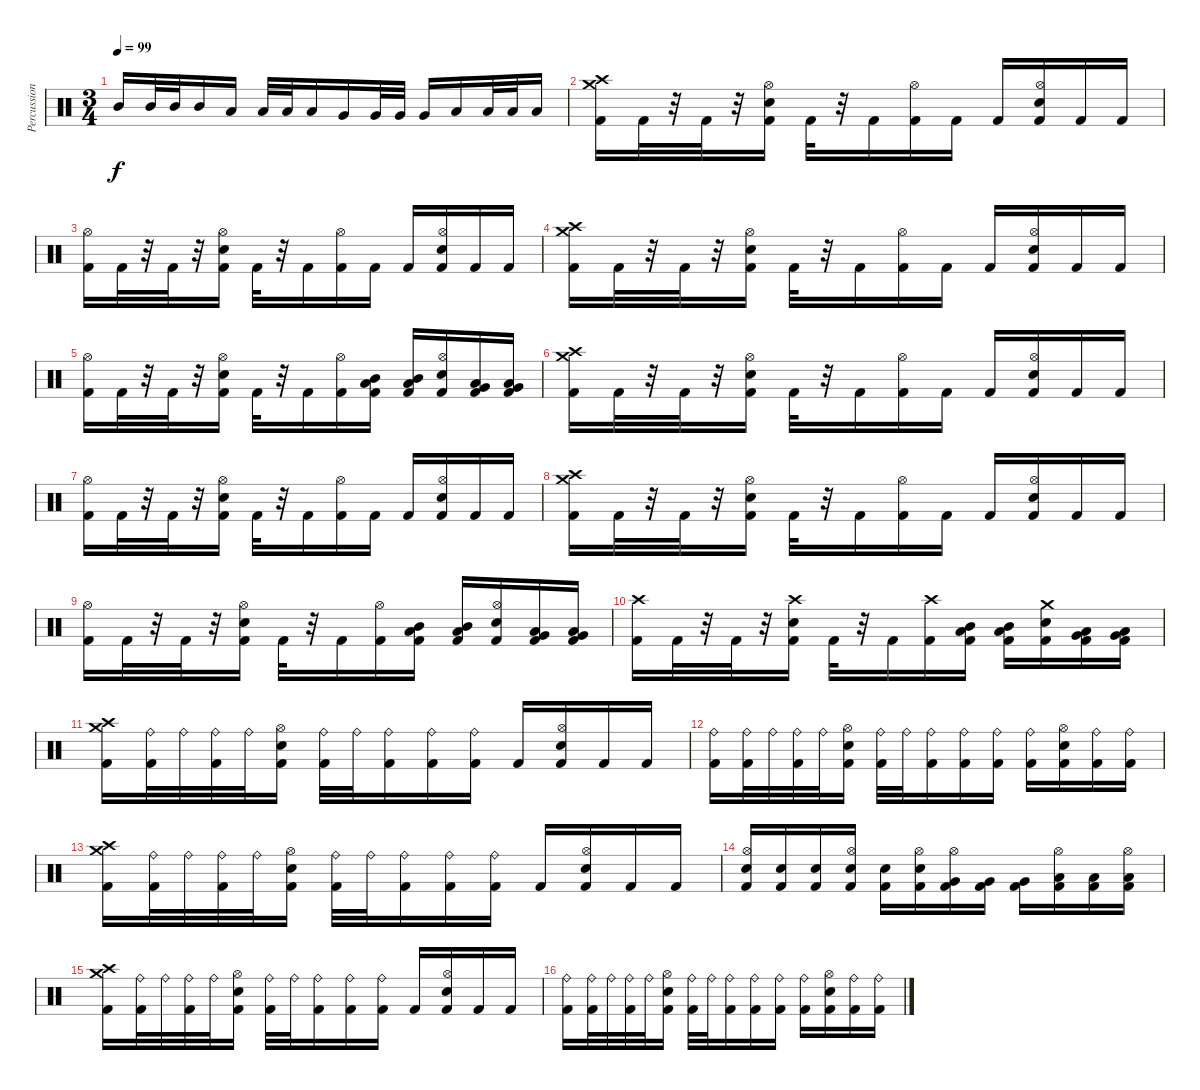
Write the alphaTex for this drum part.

\track ("Percussion" "Percussion") {instrument percussion}
\staff {score}
\articulation defaults
\ts (3 4)
\tempo 99
\clef neutral
\ks c "Mid Tom (hit)".16{dy f} "Mid Tom (hit)".32 "Mid Tom (hit)".32 "Mid Tom (hit)".16 "Low Tom (hit)".16 "Low Tom (hit)".32 "Low Tom (hit)".32 "Low Tom (hit)".16 "Very Low Tom (hit)".16 "Very Low Tom (hit)".32 "Very Low Tom (hit)".32 "Very Low Tom (hit)".16 "Low Floor Tom (hit)".16 "Low Floor Tom (hit)".32 "Low Floor Tom (hit)".32 "Low Floor Tom (hit)".16
|
("Crash medium (hit)" "Crash high (hit)" "Kick (hit) 2").16 "Kick (hit) 2".32 r.32 "Kick (hit) 2".32 r.32 ("Hi-Hat (open)" "Electric Snare (hit)" "Kick (hit) 2").16 "Kick (hit) 2".32 r.32 "Kick (hit) 2".16 ("Hi-Hat (open)" "Kick (hit) 2").16 "Kick (hit) 2".16 "Kick (hit) 2".16 ("Hi-Hat (open)" "Electric Snare (hit)" "Kick (hit) 2").16 "Kick (hit) 2".16 "Kick (hit) 2".16 |
("Hi-Hat (open)" "Kick (hit) 2").16 "Kick (hit) 2".32 r.32 "Kick (hit) 2".32 r.32 ("Hi-Hat (open)" "Electric Snare (hit)" "Kick (hit) 2").16 "Kick (hit) 2".32 r.32 "Kick (hit) 2".16 ("Hi-Hat (open)" "Kick (hit) 2").16 "Kick (hit) 2".16 "Kick (hit) 2".16 ("Hi-Hat (open)" "Electric Snare (hit)" "Kick (hit) 2").16 "Kick (hit) 2".16 "Kick (hit) 2".16 |
("Crash medium (hit)" "Crash high (hit)" "Kick (hit) 2").16 "Kick (hit) 2".32 r.32 "Kick (hit) 2".32 r.32 ("Hi-Hat (open)" "Electric Snare (hit)" "Kick (hit) 2").16 "Kick (hit) 2".32 r.32 "Kick (hit) 2".16 ("Hi-Hat (open)" "Kick (hit) 2").16 "Kick (hit) 2".16 "Kick (hit) 2".16 ("Hi-Hat (open)" "Electric Snare (hit)" "Kick (hit) 2").16 "Kick (hit) 2".16 "Kick (hit) 2".16 |
("Hi-Hat (open)" "Kick (hit) 2").16 "Kick (hit) 2".32 r.32 "Kick (hit) 2".32 r.32 ("Hi-Hat (open)" "Electric Snare (hit)" "Kick (hit) 2").16 "Kick (hit) 2".32 r.32 "Kick (hit) 2".16 ("Hi-Hat (open)" "Kick (hit) 2").16 ("Mid Tom (hit)" "Low Tom (hit)" "Kick (hit) 2").16 ("Mid Tom (hit)" "Low Tom (hit)" "Kick (hit) 2").16 ("Hi-Hat (open)" "Electric Snare (hit)" "Kick (hit) 2").16 ("Very Low Tom (hit)" "Low Floor Tom (hit)" "Kick (hit) 2").16 ("Very Low Tom (hit)" "Low Floor Tom (hit)" "Kick (hit) 2").16 |
("Crash medium (hit)" "Crash high (hit)" "Kick (hit) 2").16 "Kick (hit) 2".32 r.32 "Kick (hit) 2".32 r.32 ("Hi-Hat (open)" "Electric Snare (hit)" "Kick (hit) 2").16 "Kick (hit) 2".32 r.32 "Kick (hit) 2".16 ("Hi-Hat (open)" "Kick (hit) 2").16 "Kick (hit) 2".16 "Kick (hit) 2".16 ("Hi-Hat (open)" "Electric Snare (hit)" "Kick (hit) 2").16 "Kick (hit) 2".16 "Kick (hit) 2".16 |
("Hi-Hat (open)" "Kick (hit) 2").16 "Kick (hit) 2".32 r.32 "Kick (hit) 2".32 r.32 ("Hi-Hat (open)" "Electric Snare (hit)" "Kick (hit) 2").16 "Kick (hit) 2".32 r.32 "Kick (hit) 2".16 ("Hi-Hat (open)" "Kick (hit) 2").16 "Kick (hit) 2".16 "Kick (hit) 2".16 ("Hi-Hat (open)" "Electric Snare (hit)" "Kick (hit) 2").16 "Kick (hit) 2".16 "Kick (hit) 2".16 |
("Crash medium (hit)" "Crash high (hit)" "Kick (hit) 2").16 "Kick (hit) 2".32 r.32 "Kick (hit) 2".32 r.32 ("Hi-Hat (open)" "Electric Snare (hit)" "Kick (hit) 2").16 "Kick (hit) 2".32 r.32 "Kick (hit) 2".16 ("Hi-Hat (open)" "Kick (hit) 2").16 "Kick (hit) 2".16 "Kick (hit) 2".16 ("Hi-Hat (open)" "Electric Snare (hit)" "Kick (hit) 2").16 "Kick (hit) 2".16 "Kick (hit) 2".16 |
("Hi-Hat (open)" "Kick (hit) 2").16 "Kick (hit) 2".32 r.32 "Kick (hit) 2".32 r.32 ("Hi-Hat (open)" "Electric Snare (hit)" "Kick (hit) 2").16 "Kick (hit) 2".32 r.32 "Kick (hit) 2".16 ("Hi-Hat (open)" "Kick (hit) 2").16 ("Mid Tom (hit)" "Low Tom (hit)" "Kick (hit) 2").16 ("Mid Tom (hit)" "Low Tom (hit)" "Kick (hit) 2").16 ("Hi-Hat (open)" "Electric Snare (hit)" "Kick (hit) 2").16 ("Very Low Tom (hit)" "Low Floor Tom (hit)" "Kick (hit) 2").16 ("Very Low Tom (hit)" "Low Floor Tom (hit)" "Kick (hit) 2").16 |
("Crash high (hit)" "Kick (hit) 2").16 "Kick (hit) 2".32 r.32 "Kick (hit) 2".32 r.32 ("Crash high (hit)" "Electric Snare (hit)" "Kick (hit) 2").16 "Kick (hit) 2".32 r.32 "Kick (hit) 2".16 ("Crash high (hit)" "Kick (hit) 2").16 ("Mid Tom (hit)" "Low Tom (hit)" "Kick (hit) 2").16 ("Mid Tom (hit)" "Low Tom (hit)" "Kick (hit) 2").16 ("Crash medium (hit)" "Electric Snare (hit)" "Kick (hit) 2").16 ("Very Low Tom (hit)" "Low Floor Tom (hit)" "Kick (hit) 2").16 ("Very Low Tom (hit)" "Low Floor Tom (hit)" "Kick (hit) 2").16 |
("Crash medium (hit)" "Crash high (hit)" "Kick (hit) 2").16 ("Ride (bell)" "Kick (hit) 2").32 "Ride (bell)".32 ("Ride (bell)" "Kick (hit) 2").32 "Ride (bell)".32 ("Hi-Hat (open)" "Electric Snare (hit)" "Kick (hit) 2").16 ("Ride (bell)" "Kick (hit) 2").32 "Ride (bell)".32 ("Ride (bell)" "Kick (hit) 2").16 ("Ride (bell)" "Kick (hit) 2").16 ("Ride (bell)" "Kick (hit) 2").16 "Kick (hit) 2".16 ("Hi-Hat (open)" "Electric Snare (hit)" "Kick (hit) 2").16 "Kick (hit) 2".16 "Kick (hit) 2".16 |
("Ride (bell)" "Kick (hit) 2").16 ("Ride (bell)" "Kick (hit) 2").32 "Ride (bell)".32 ("Ride (bell)" "Kick (hit) 2").32 "Ride (bell)".32 ("Hi-Hat (open)" "Electric Snare (hit)" "Kick (hit) 2").16 ("Ride (bell)" "Kick (hit) 2").32 "Ride (bell)".32 ("Ride (bell)" "Kick (hit) 2").16 ("Ride (bell)" "Kick (hit) 2").16 ("Ride (bell)" "Kick (hit) 2").16 ("Ride (bell)" "Kick (hit) 2").16 ("Hi-Hat (open)" "Electric Snare (hit)" "Kick (hit) 2").16 ("Ride (bell)" "Kick (hit) 2").16 ("Ride (bell)" "Kick (hit) 2").16 |
("Crash medium (hit)" "Crash high (hit)" "Kick (hit) 2").16 ("Ride (bell)" "Kick (hit) 2").32 "Ride (bell)".32 ("Ride (bell)" "Kick (hit) 2").32 "Ride (bell)".32 ("Hi-Hat (open)" "Electric Snare (hit)" "Kick (hit) 2").16 ("Ride (bell)" "Kick (hit) 2").32 "Ride (bell)".32 ("Ride (bell)" "Kick (hit) 2").16 ("Ride (bell)" "Kick (hit) 2").16 ("Ride (bell)" "Kick (hit) 2").16 "Kick (hit) 2".16 ("Hi-Hat (open)" "Electric Snare (hit)" "Kick (hit) 2").16 "Kick (hit) 2".16 "Kick (hit) 2".16 |
("Hi-Hat (open)" "Electric Snare (hit)" "Kick (hit) 2").16 ("Electric Snare (hit)" "Kick (hit) 2").16 ("Electric Snare (hit)" "Kick (hit) 2").16 ("Hi-Hat (open)" "Electric Snare (hit)" "Kick (hit) 2").16 ("Electric Snare (hit)" "Kick (hit) 2").16 ("Hi-Hat (open)" "Electric Snare (hit)" "Kick (hit) 2").16 ("Hi-Hat (open)" "Very Low Tom (hit)" "Kick (hit) 2").16 ("Very Low Tom (hit)" "Kick (hit) 2").16 ("Very Low Tom (hit)" "Kick (hit) 2").16 ("Hi-Hat (open)" "Low Floor Tom (hit)" "Kick (hit) 2").16 ("Low Floor Tom (hit)" "Kick (hit) 2").16 ("Hi-Hat (open)" "Low Floor Tom (hit)" "Kick (hit) 2").16 |
("Crash medium (hit)" "Crash high (hit)" "Kick (hit) 2").16 ("Ride (bell)" "Kick (hit) 2").32 "Ride (bell)".32 ("Ride (bell)" "Kick (hit) 2").32 "Ride (bell)".32 ("Hi-Hat (open)" "Electric Snare (hit)" "Kick (hit) 2").16 ("Ride (bell)" "Kick (hit) 2").32 "Ride (bell)".32 ("Ride (bell)" "Kick (hit) 2").16 ("Ride (bell)" "Kick (hit) 2").16 ("Ride (bell)" "Kick (hit) 2").16 "Kick (hit) 2".16 ("Hi-Hat (open)" "Electric Snare (hit)" "Kick (hit) 2").16 "Kick (hit) 2".16 "Kick (hit) 2".16 |
("Ride (bell)" "Kick (hit) 2").16 ("Ride (bell)" "Kick (hit) 2").32 "Ride (bell)".32 ("Ride (bell)" "Kick (hit) 2").32 "Ride (bell)".32 ("Hi-Hat (open)" "Electric Snare (hit)" "Kick (hit) 2").16 ("Ride (bell)" "Kick (hit) 2").32 "Ride (bell)".32 ("Ride (bell)" "Kick (hit) 2").16 ("Ride (bell)" "Kick (hit) 2").16 ("Ride (bell)" "Kick (hit) 2").16 ("Ride (bell)" "Kick (hit) 2").16 ("Hi-Hat (open)" "Electric Snare (hit)" "Kick (hit) 2").16 ("Ride (bell)" "Kick (hit) 2").16 ("Ride (bell)" "Kick (hit) 2").16
